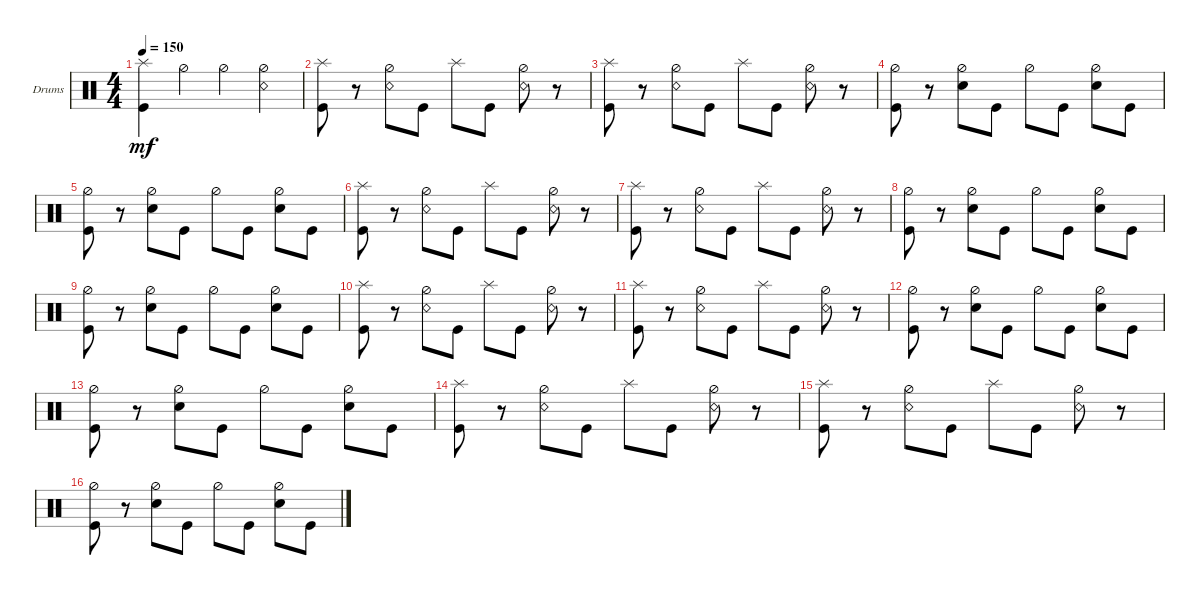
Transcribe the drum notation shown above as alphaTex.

\defaultSystemsLayout 4
\bracketExtendMode groupsimilarinstruments
\firstSystemTrackNameOrientation horizontal
\otherSystemsTrackNameOrientation horizontal
\track ("Drumkit" "Drums") {instrument percussion}
\staff {score}
\articulation defaults
\ts (4 4)
\tempo 150
\clef neutral
\ks c
("Kick (hit)" "Splash (hit)").4{dy mf} "Hi-Hat (half)".4 "Hi-Hat (half)".4 ("Snare (rim shot)" "Hi-Hat (half)").4 |
("Kick (hit)" "Splash (hit)").8 r.8 ("Hi-Hat (half)" "Snare (rim shot)").8 "Kick (hit)".8 "Splash (hit)".8 "Kick (hit)".8 ("Hi-Hat (half)" "Snare (rim shot)").8 r.8 |
("Kick (hit)" "Splash (hit)").8 r.8 ("Hi-Hat (half)" "Snare (rim shot)").8 "Kick (hit)".8 "Splash (hit)".8 "Kick (hit)".8 ("Hi-Hat (half)" "Snare (rim shot)").8 r.8 |
("Kick (hit)" "Hi-Hat (half)").8 r.8 ("Hi-Hat (half)" "Snare (hit) 2").8 "Kick (hit)".8 "Hi-Hat (half)".8 "Kick (hit)".8 ("Hi-Hat (half)" "Snare (hit) 2").8 "Kick (hit)".8 |
("Kick (hit)" "Hi-Hat (half)").8 r.8 ("Hi-Hat (half)" "Snare (hit) 2").8 "Kick (hit)".8 "Hi-Hat (half)".8 "Kick (hit)".8 ("Hi-Hat (half)" "Snare (hit) 2").8 "Kick (hit)".8 |
("Kick (hit)" "Splash (hit)").8 r.8 ("Hi-Hat (half)" "Snare (rim shot)").8 "Kick (hit)".8 "Splash (hit)".8 "Kick (hit)".8 ("Hi-Hat (half)" "Snare (rim shot)").8 r.8 |
("Kick (hit)" "Splash (hit)").8 r.8 ("Hi-Hat (half)" "Snare (rim shot)").8 "Kick (hit)".8 "Splash (hit)".8 "Kick (hit)".8 ("Hi-Hat (half)" "Snare (rim shot)").8 r.8 |
("Kick (hit)" "Hi-Hat (half)").8 r.8 ("Hi-Hat (half)" "Snare (hit) 2").8 "Kick (hit)".8 "Hi-Hat (half)".8 "Kick (hit)".8 ("Hi-Hat (half)" "Snare (hit) 2").8 "Kick (hit)".8 |
("Kick (hit)" "Hi-Hat (half)").8 r.8 ("Hi-Hat (half)" "Snare (hit) 2").8 "Kick (hit)".8 "Hi-Hat (half)".8 "Kick (hit)".8 ("Hi-Hat (half)" "Snare (hit) 2").8 "Kick (hit)".8 |
("Kick (hit)" "Splash (hit)").8 r.8 ("Hi-Hat (half)" "Snare (rim shot)").8 "Kick (hit)".8 "Splash (hit)".8 "Kick (hit)".8 ("Hi-Hat (half)" "Snare (rim shot)").8 r.8 |
("Kick (hit)" "Splash (hit)").8 r.8 ("Hi-Hat (half)" "Snare (rim shot)").8 "Kick (hit)".8 "Splash (hit)".8 "Kick (hit)".8 ("Hi-Hat (half)" "Snare (rim shot)").8 r.8 |
("Kick (hit)" "Hi-Hat (half)").8 r.8 ("Hi-Hat (half)" "Snare (hit) 2").8 "Kick (hit)".8 "Hi-Hat (half)".8 "Kick (hit)".8 ("Hi-Hat (half)" "Snare (hit) 2").8 "Kick (hit)".8 |
("Kick (hit)" "Hi-Hat (half)").8 r.8 ("Hi-Hat (half)" "Snare (hit) 2").8 "Kick (hit)".8 "Hi-Hat (half)".8 "Kick (hit)".8 ("Hi-Hat (half)" "Snare (hit) 2").8 "Kick (hit)".8 |
("Kick (hit)" "Splash (hit)").8 r.8 ("Hi-Hat (half)" "Snare (rim shot)").8 "Kick (hit)".8 "Splash (hit)".8 "Kick (hit)".8 ("Hi-Hat (half)" "Snare (rim shot)").8 r.8 |
("Kick (hit)" "Splash (hit)").8 r.8 ("Hi-Hat (half)" "Snare (rim shot)").8 "Kick (hit)".8 "Splash (hit)".8 "Kick (hit)".8 ("Hi-Hat (half)" "Snare (rim shot)").8 r.8 |
("Kick (hit)" "Hi-Hat (half)").8 r.8 ("Hi-Hat (half)" "Snare (hit) 2").8 "Kick (hit)".8 "Hi-Hat (half)".8 "Kick (hit)".8 ("Hi-Hat (half)" "Snare (hit) 2").8 "Kick (hit)".8
